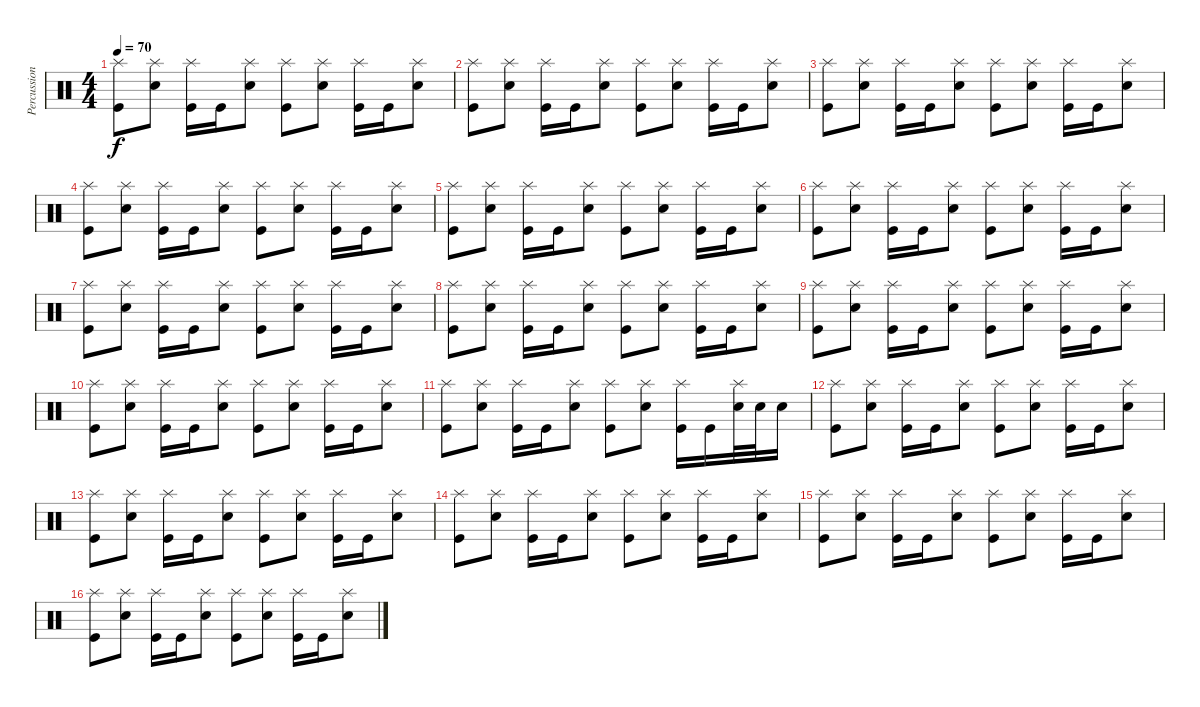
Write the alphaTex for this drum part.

\track ("Percussions" "Percussion") {instrument percussion}
\staff {score}
\articulation defaults
\ts (4 4)
\tempo 70
\clef neutral
\ks c
("Splash (hit)" "Kick (hit)").8{dy f} ("Splash (hit)" "Electric Snare (hit)").8 ("Splash (hit)" "Kick (hit)").16 "Kick (hit)".16 ("Splash (hit)" "Electric Snare (hit)").8 ("Splash (hit)" "Kick (hit)").8 ("Splash (hit)" "Electric Snare (hit)").8 ("Splash (hit)" "Kick (hit)").16 "Kick (hit)".16 ("Splash (hit)" "Electric Snare (hit)").8 |
("Splash (hit)" "Kick (hit)").8 ("Splash (hit)" "Electric Snare (hit)").8 ("Splash (hit)" "Kick (hit)").16 "Kick (hit)".16 ("Splash (hit)" "Electric Snare (hit)").8 ("Splash (hit)" "Kick (hit)").8 ("Splash (hit)" "Electric Snare (hit)").8 ("Splash (hit)" "Kick (hit)").16 "Kick (hit)".16 ("Splash (hit)" "Electric Snare (hit)").8 |
("Splash (hit)" "Kick (hit)").8 ("Splash (hit)" "Electric Snare (hit)").8 ("Splash (hit)" "Kick (hit)").16 "Kick (hit)".16 ("Splash (hit)" "Electric Snare (hit)").8 ("Splash (hit)" "Kick (hit)").8 ("Splash (hit)" "Electric Snare (hit)").8 ("Splash (hit)" "Kick (hit)").16 "Kick (hit)".16 ("Splash (hit)" "Electric Snare (hit)").8 |
("Splash (hit)" "Kick (hit)").8 ("Splash (hit)" "Electric Snare (hit)").8 ("Splash (hit)" "Kick (hit)").16 "Kick (hit)".16 ("Splash (hit)" "Electric Snare (hit)").8 ("Splash (hit)" "Kick (hit)").8 ("Splash (hit)" "Electric Snare (hit)").8 ("Splash (hit)" "Kick (hit)").16 "Kick (hit)".16 ("Splash (hit)" "Electric Snare (hit)").8 |
("Splash (hit)" "Kick (hit)").8 ("Splash (hit)" "Electric Snare (hit)").8 ("Splash (hit)" "Kick (hit)").16 "Kick (hit)".16 ("Splash (hit)" "Electric Snare (hit)").8 ("Splash (hit)" "Kick (hit)").8 ("Splash (hit)" "Electric Snare (hit)").8 ("Splash (hit)" "Kick (hit)").16 "Kick (hit)".16 ("Splash (hit)" "Electric Snare (hit)").8 |
("Splash (hit)" "Kick (hit)").8 ("Splash (hit)" "Electric Snare (hit)").8 ("Splash (hit)" "Kick (hit)").16 "Kick (hit)".16 ("Splash (hit)" "Electric Snare (hit)").8 ("Splash (hit)" "Kick (hit)").8 ("Splash (hit)" "Electric Snare (hit)").8 ("Splash (hit)" "Kick (hit)").16 "Kick (hit)".16 ("Splash (hit)" "Electric Snare (hit)").8 |
("Splash (hit)" "Kick (hit)").8 ("Splash (hit)" "Electric Snare (hit)").8 ("Splash (hit)" "Kick (hit)").16 "Kick (hit)".16 ("Splash (hit)" "Electric Snare (hit)").8 ("Splash (hit)" "Kick (hit)").8 ("Splash (hit)" "Electric Snare (hit)").8 ("Splash (hit)" "Kick (hit)").16 "Kick (hit)".16 ("Splash (hit)" "Electric Snare (hit)").8 |
("Splash (hit)" "Kick (hit)").8 ("Splash (hit)" "Electric Snare (hit)").8 ("Splash (hit)" "Kick (hit)").16 "Kick (hit)".16 ("Splash (hit)" "Electric Snare (hit)").8 ("Splash (hit)" "Kick (hit)").8 ("Splash (hit)" "Electric Snare (hit)").8 ("Splash (hit)" "Kick (hit)").16 "Kick (hit)".16 ("Splash (hit)" "Electric Snare (hit)").8 |
("Splash (hit)" "Kick (hit)").8 ("Splash (hit)" "Electric Snare (hit)").8 ("Splash (hit)" "Kick (hit)").16 "Kick (hit)".16 ("Splash (hit)" "Electric Snare (hit)").8 ("Splash (hit)" "Kick (hit)").8 ("Splash (hit)" "Electric Snare (hit)").8 ("Splash (hit)" "Kick (hit)").16 "Kick (hit)".16 ("Splash (hit)" "Electric Snare (hit)").8 |
("Splash (hit)" "Kick (hit)").8 ("Splash (hit)" "Electric Snare (hit)").8 ("Splash (hit)" "Kick (hit)").16 "Kick (hit)".16 ("Splash (hit)" "Electric Snare (hit)").8 ("Splash (hit)" "Kick (hit)").8 ("Splash (hit)" "Electric Snare (hit)").8 ("Splash (hit)" "Kick (hit)").16 "Kick (hit)".16 ("Splash (hit)" "Electric Snare (hit)").8 |
("Splash (hit)" "Kick (hit)").8 ("Splash (hit)" "Electric Snare (hit)").8 ("Splash (hit)" "Kick (hit)").16 "Kick (hit)".16 ("Splash (hit)" "Electric Snare (hit)").8 ("Splash (hit)" "Kick (hit)").8 ("Splash (hit)" "Electric Snare (hit)").8 ("Splash (hit)" "Kick (hit)").16 "Kick (hit)".16 ("Splash (hit)" "Electric Snare (hit)").32 "Electric Snare (hit)".32 "Electric Snare (hit)".16 |
("Splash (hit)" "Kick (hit)").8 ("Splash (hit)" "Electric Snare (hit)").8 ("Splash (hit)" "Kick (hit)").16 "Kick (hit)".16 ("Splash (hit)" "Electric Snare (hit)").8 ("Splash (hit)" "Kick (hit)").8 ("Splash (hit)" "Electric Snare (hit)").8 ("Splash (hit)" "Kick (hit)").16 "Kick (hit)".16 ("Splash (hit)" "Electric Snare (hit)").8 |
("Splash (hit)" "Kick (hit)").8 ("Splash (hit)" "Electric Snare (hit)").8 ("Splash (hit)" "Kick (hit)").16 "Kick (hit)".16 ("Splash (hit)" "Electric Snare (hit)").8 ("Splash (hit)" "Kick (hit)").8 ("Splash (hit)" "Electric Snare (hit)").8 ("Splash (hit)" "Kick (hit)").16 "Kick (hit)".16 ("Splash (hit)" "Electric Snare (hit)").8 |
("Splash (hit)" "Kick (hit)").8 ("Splash (hit)" "Electric Snare (hit)").8 ("Splash (hit)" "Kick (hit)").16 "Kick (hit)".16 ("Splash (hit)" "Electric Snare (hit)").8 ("Splash (hit)" "Kick (hit)").8 ("Splash (hit)" "Electric Snare (hit)").8 ("Splash (hit)" "Kick (hit)").16 "Kick (hit)".16 ("Splash (hit)" "Electric Snare (hit)").8 |
("Splash (hit)" "Kick (hit)").8 ("Splash (hit)" "Electric Snare (hit)").8 ("Splash (hit)" "Kick (hit)").16 "Kick (hit)".16 ("Splash (hit)" "Electric Snare (hit)").8 ("Splash (hit)" "Kick (hit)").8 ("Splash (hit)" "Electric Snare (hit)").8 ("Splash (hit)" "Kick (hit)").16 "Kick (hit)".16 ("Splash (hit)" "Electric Snare (hit)").8 |
("Splash (hit)" "Kick (hit)").8 ("Splash (hit)" "Electric Snare (hit)").8 ("Splash (hit)" "Kick (hit)").16 "Kick (hit)".16 ("Splash (hit)" "Electric Snare (hit)").8 ("Splash (hit)" "Kick (hit)").8 ("Splash (hit)" "Electric Snare (hit)").8 ("Splash (hit)" "Kick (hit)").16 "Kick (hit)".16 ("Splash (hit)" "Electric Snare (hit)").8
